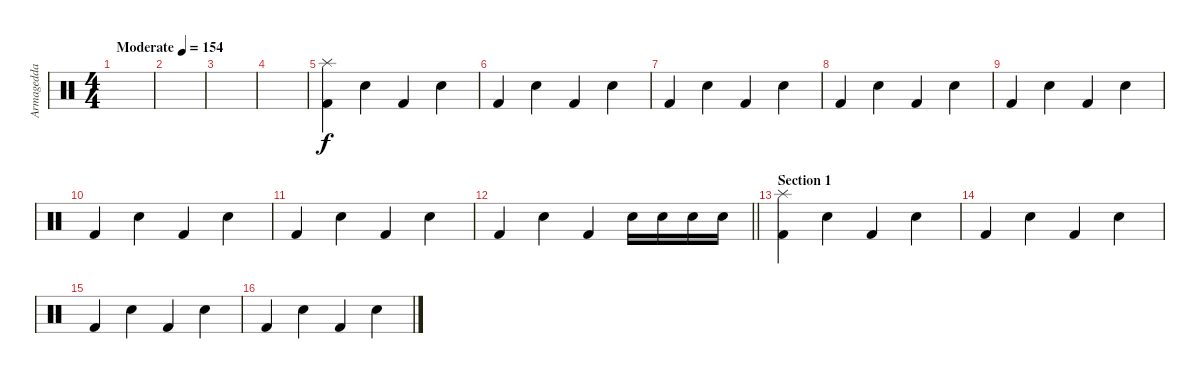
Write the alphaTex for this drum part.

\track ("Armagedda" "Armagedda") {instrument percussion}
\staff {score}
\articulation defaults
\ts (4 4)
\tempo (154 "Moderate")
\clef neutral
\ks c
|
|
|
|
("Splash (hit)" "Kick (hit) 2").4 "Snare (hit) 2".4 "Kick (hit) 2".4 "Snare (hit) 2".4 |
"Kick (hit) 2".4 "Snare (hit) 2".4 "Kick (hit) 2".4 "Snare (hit) 2".4 |
"Kick (hit) 2".4 "Snare (hit) 2".4 "Kick (hit) 2".4 "Snare (hit) 2".4 |
"Kick (hit) 2".4 "Snare (hit) 2".4 "Kick (hit) 2".4 "Snare (hit) 2".4 |
"Kick (hit) 2".4 "Snare (hit) 2".4 "Kick (hit) 2".4 "Snare (hit) 2".4 |
"Kick (hit) 2".4 "Snare (hit) 2".4 "Kick (hit) 2".4 "Snare (hit) 2".4 |
"Kick (hit) 2".4 "Snare (hit) 2".4 "Kick (hit) 2".4 "Snare (hit) 2".4 |
\barLineRight lightlight "Kick (hit) 2".4 "Snare (hit) 2".4 "Kick (hit) 2".4 "Snare (hit) 2".16 "Snare (hit) 2".16 "Snare (hit) 2".16 "Snare (hit) 2".16
|
\section ("" "Section 1")
("Splash (hit)" "Kick (hit) 2").4 "Snare (hit) 2".4 "Kick (hit) 2".4 "Snare (hit) 2".4 |
"Kick (hit) 2".4 "Snare (hit) 2".4 "Kick (hit) 2".4 "Snare (hit) 2".4 |
"Kick (hit) 2".4 "Snare (hit) 2".4 "Kick (hit) 2".4 "Snare (hit) 2".4 |
"Kick (hit) 2".4 "Snare (hit) 2".4 "Kick (hit) 2".4 "Snare (hit) 2".4
